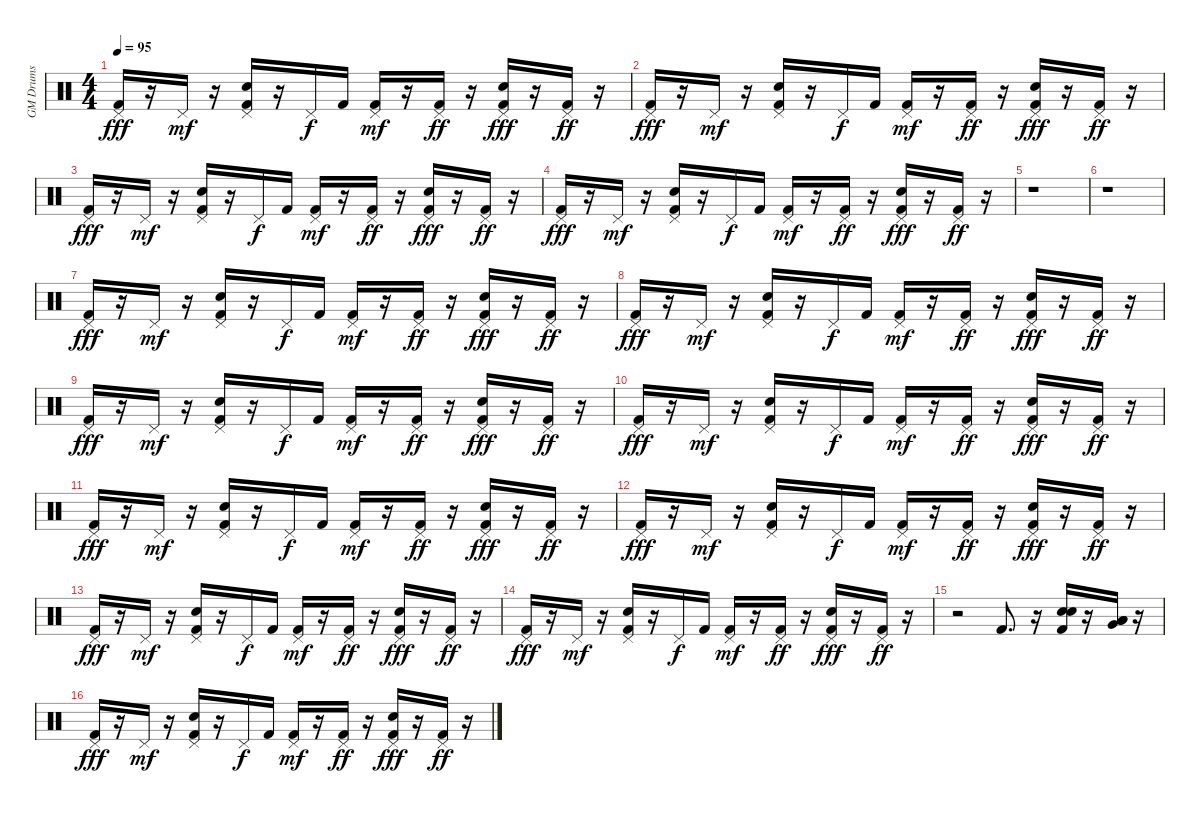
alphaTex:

\track ("GM Drums" "GM Drums") {instrument percussion}
\staff {score}
\articulation defaults
\ts (4 4)
\tempo 95
\clef neutral
\ks c
("Kick (hit) 2" "Pedal Hi-Hat (hit)").16{dy fff} r.16 "Pedal Hi-Hat (hit)".16{dy mf} r.16 ("Kick (hit) 2" "Hand Clap (hit)" "Pedal Hi-Hat (hit)").16 r.16 "Pedal Hi-Hat (hit)".16{dy f} "Kick (hit) 2".16 ("Kick (hit) 2" "Pedal Hi-Hat (hit)").16{dy mf} r.16 ("Kick (hit) 2" "Pedal Hi-Hat (hit)").16{dy ff} r.16 ("Kick (hit) 2" "Hand Clap (hit)" "Pedal Hi-Hat (hit)").16{dy fff} r.16 ("Kick (hit) 2" "Pedal Hi-Hat (hit)").16{dy ff} r.16 |
("Kick (hit) 2" "Pedal Hi-Hat (hit)").16{dy fff} r.16 "Pedal Hi-Hat (hit)".16{dy mf} r.16 ("Kick (hit) 2" "Hand Clap (hit)" "Pedal Hi-Hat (hit)").16 r.16 "Pedal Hi-Hat (hit)".16{dy f} "Kick (hit) 2".16 ("Kick (hit) 2" "Pedal Hi-Hat (hit)").16{dy mf} r.16 ("Kick (hit) 2" "Pedal Hi-Hat (hit)").16{dy ff} r.16 ("Kick (hit) 2" "Hand Clap (hit)" "Pedal Hi-Hat (hit)").16{dy fff} r.16 ("Kick (hit) 2" "Pedal Hi-Hat (hit)").16{dy ff} r.16 |
("Kick (hit) 2" "Pedal Hi-Hat (hit)").16{dy fff} r.16 "Pedal Hi-Hat (hit)".16{dy mf} r.16 ("Kick (hit) 2" "Hand Clap (hit)" "Pedal Hi-Hat (hit)").16 r.16 "Pedal Hi-Hat (hit)".16{dy f} "Kick (hit) 2".16 ("Kick (hit) 2" "Pedal Hi-Hat (hit)").16{dy mf} r.16 ("Kick (hit) 2" "Pedal Hi-Hat (hit)").16{dy ff} r.16 ("Kick (hit) 2" "Hand Clap (hit)" "Pedal Hi-Hat (hit)").16{dy fff} r.16 ("Kick (hit) 2" "Pedal Hi-Hat (hit)").16{dy ff} r.16 |
("Kick (hit) 2" "Pedal Hi-Hat (hit)").16{dy fff} r.16 "Pedal Hi-Hat (hit)".16{dy mf} r.16 ("Kick (hit) 2" "Hand Clap (hit)" "Pedal Hi-Hat (hit)").16 r.16 "Pedal Hi-Hat (hit)".16{dy f} "Kick (hit) 2".16 ("Kick (hit) 2" "Pedal Hi-Hat (hit)").16{dy mf} r.16 ("Kick (hit) 2" "Pedal Hi-Hat (hit)").16{dy ff} r.16 ("Kick (hit) 2" "Hand Clap (hit)" "Pedal Hi-Hat (hit)").16{dy fff} r.16 ("Kick (hit) 2" "Pedal Hi-Hat (hit)").16{dy ff} r.16 |
r.1 |
r.1 |
("Kick (hit) 2" "Pedal Hi-Hat (hit)").16{dy fff} r.16 "Pedal Hi-Hat (hit)".16{dy mf} r.16 ("Kick (hit) 2" "Hand Clap (hit)" "Pedal Hi-Hat (hit)").16 r.16 "Pedal Hi-Hat (hit)".16{dy f} "Kick (hit) 2".16 ("Kick (hit) 2" "Pedal Hi-Hat (hit)").16{dy mf} r.16 ("Kick (hit) 2" "Pedal Hi-Hat (hit)").16{dy ff} r.16 ("Kick (hit) 2" "Hand Clap (hit)" "Pedal Hi-Hat (hit)").16{dy fff} r.16 ("Kick (hit) 2" "Pedal Hi-Hat (hit)").16{dy ff} r.16 |
("Kick (hit) 2" "Pedal Hi-Hat (hit)").16{dy fff} r.16 "Pedal Hi-Hat (hit)".16{dy mf} r.16 ("Kick (hit) 2" "Hand Clap (hit)" "Pedal Hi-Hat (hit)").16 r.16 "Pedal Hi-Hat (hit)".16{dy f} "Kick (hit) 2".16 ("Kick (hit) 2" "Pedal Hi-Hat (hit)").16{dy mf} r.16 ("Kick (hit) 2" "Pedal Hi-Hat (hit)").16{dy ff} r.16 ("Kick (hit) 2" "Hand Clap (hit)" "Pedal Hi-Hat (hit)").16{dy fff} r.16 ("Kick (hit) 2" "Pedal Hi-Hat (hit)").16{dy ff} r.16 |
("Kick (hit) 2" "Pedal Hi-Hat (hit)").16{dy fff} r.16 "Pedal Hi-Hat (hit)".16{dy mf} r.16 ("Kick (hit) 2" "Hand Clap (hit)" "Pedal Hi-Hat (hit)").16 r.16 "Pedal Hi-Hat (hit)".16{dy f} "Kick (hit) 2".16 ("Kick (hit) 2" "Pedal Hi-Hat (hit)").16{dy mf} r.16 ("Kick (hit) 2" "Pedal Hi-Hat (hit)").16{dy ff} r.16 ("Kick (hit) 2" "Hand Clap (hit)" "Pedal Hi-Hat (hit)").16{dy fff} r.16 ("Kick (hit) 2" "Pedal Hi-Hat (hit)").16{dy ff} r.16 |
("Kick (hit) 2" "Pedal Hi-Hat (hit)").16{dy fff} r.16 "Pedal Hi-Hat (hit)".16{dy mf} r.16 ("Kick (hit) 2" "Hand Clap (hit)" "Pedal Hi-Hat (hit)").16 r.16 "Pedal Hi-Hat (hit)".16{dy f} "Kick (hit) 2".16 ("Kick (hit) 2" "Pedal Hi-Hat (hit)").16{dy mf} r.16 ("Kick (hit) 2" "Pedal Hi-Hat (hit)").16{dy ff} r.16 ("Kick (hit) 2" "Hand Clap (hit)" "Pedal Hi-Hat (hit)").16{dy fff} r.16 ("Kick (hit) 2" "Pedal Hi-Hat (hit)").16{dy ff} r.16 |
("Kick (hit) 2" "Pedal Hi-Hat (hit)").16{dy fff} r.16 "Pedal Hi-Hat (hit)".16{dy mf} r.16 ("Kick (hit) 2" "Hand Clap (hit)" "Pedal Hi-Hat (hit)").16 r.16 "Pedal Hi-Hat (hit)".16{dy f} "Kick (hit) 2".16 ("Kick (hit) 2" "Pedal Hi-Hat (hit)").16{dy mf} r.16 ("Kick (hit) 2" "Pedal Hi-Hat (hit)").16{dy ff} r.16 ("Kick (hit) 2" "Hand Clap (hit)" "Pedal Hi-Hat (hit)").16{dy fff} r.16 ("Kick (hit) 2" "Pedal Hi-Hat (hit)").16{dy ff} r.16 |
("Kick (hit) 2" "Pedal Hi-Hat (hit)").16{dy fff} r.16 "Pedal Hi-Hat (hit)".16{dy mf} r.16 ("Kick (hit) 2" "Hand Clap (hit)" "Pedal Hi-Hat (hit)").16 r.16 "Pedal Hi-Hat (hit)".16{dy f} "Kick (hit) 2".16 ("Kick (hit) 2" "Pedal Hi-Hat (hit)").16{dy mf} r.16 ("Kick (hit) 2" "Pedal Hi-Hat (hit)").16{dy ff} r.16 ("Kick (hit) 2" "Hand Clap (hit)" "Pedal Hi-Hat (hit)").16{dy fff} r.16 ("Kick (hit) 2" "Pedal Hi-Hat (hit)").16{dy ff} r.16 |
("Kick (hit) 2" "Pedal Hi-Hat (hit)").16{dy fff} r.16 "Pedal Hi-Hat (hit)".16{dy mf} r.16 ("Kick (hit) 2" "Hand Clap (hit)" "Pedal Hi-Hat (hit)").16 r.16 "Pedal Hi-Hat (hit)".16{dy f} "Kick (hit) 2".16 ("Kick (hit) 2" "Pedal Hi-Hat (hit)").16{dy mf} r.16 ("Kick (hit) 2" "Pedal Hi-Hat (hit)").16{dy ff} r.16 ("Kick (hit) 2" "Hand Clap (hit)" "Pedal Hi-Hat (hit)").16{dy fff} r.16 ("Kick (hit) 2" "Pedal Hi-Hat (hit)").16{dy ff} r.16 |
("Kick (hit) 2" "Pedal Hi-Hat (hit)").16{dy fff} r.16 "Pedal Hi-Hat (hit)".16{dy mf} r.16 ("Kick (hit) 2" "Hand Clap (hit)" "Pedal Hi-Hat (hit)").16 r.16 "Pedal Hi-Hat (hit)".16{dy f} "Kick (hit) 2".16 ("Kick (hit) 2" "Pedal Hi-Hat (hit)").16{dy mf} r.16 ("Kick (hit) 2" "Pedal Hi-Hat (hit)").16{dy ff} r.16 ("Kick (hit) 2" "Hand Clap (hit)" "Pedal Hi-Hat (hit)").16{dy fff} r.16 ("Kick (hit) 2" "Pedal Hi-Hat (hit)").16{dy ff} r.16 |
r.2 "Kick (hit) 2".8{d} r.16 ("Kick (hit) 2" "Snare (hit) 2" "Electric Snare (hit)").16 r.16 ("Low Tom (hit)" "Very Low Tom (hit)" "Low Floor Tom (hit)").16 r.16 |
("Kick (hit) 2" "Pedal Hi-Hat (hit)").16{dy fff} r.16 "Pedal Hi-Hat (hit)".16{dy mf} r.16 ("Kick (hit) 2" "Hand Clap (hit)" "Pedal Hi-Hat (hit)").16 r.16 "Pedal Hi-Hat (hit)".16{dy f} "Kick (hit) 2".16 ("Kick (hit) 2" "Pedal Hi-Hat (hit)").16{dy mf} r.16 ("Kick (hit) 2" "Pedal Hi-Hat (hit)").16{dy ff} r.16 ("Kick (hit) 2" "Hand Clap (hit)" "Pedal Hi-Hat (hit)").16{dy fff} r.16 ("Kick (hit) 2" "Pedal Hi-Hat (hit)").16{dy ff} r.16
